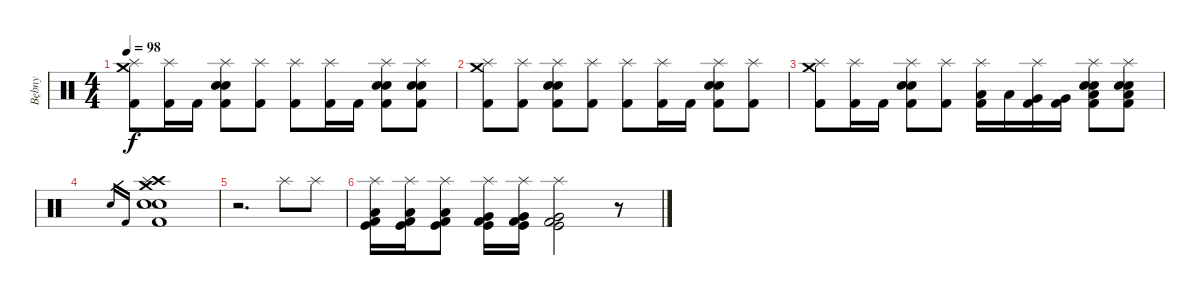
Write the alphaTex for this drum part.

\track ("Bębny" "Bębny") {instrument percussion}
\staff {score}
\articulation defaults
\ts (4 4)
\tempo 98
\clef neutral
\ks c
("Splash (hit)" "Crash medium (hit)" "Kick (hit) 2").8{dy f} ("Splash (hit)" "Kick (hit) 2").16 "Kick (hit) 2".16 ("Splash (hit)" "Snare (hit) 2" "Electric Snare (hit)" "Kick (hit) 2").8 ("Splash (hit)" "Kick (hit) 2").8 ("Splash (hit)" "Kick (hit) 2").8 ("Splash (hit)" "Kick (hit) 2").16 "Kick (hit) 2".16 ("Splash (hit)" "Snare (hit) 2" "Electric Snare (hit)" "Kick (hit) 2").8 ("Splash (hit)" "Snare (hit) 2" "Electric Snare (hit)" "Kick (hit) 2").8 |
("Splash (hit)" "Crash medium (hit)" "Kick (hit) 2").8 ("Splash (hit)" "Kick (hit) 2").8 ("Splash (hit)" "Snare (hit) 2" "Electric Snare (hit)" "Kick (hit) 2").8 ("Splash (hit)" "Kick (hit) 2").8 ("Splash (hit)" "Kick (hit) 2").8 ("Splash (hit)" "Kick (hit) 2").16 "Kick (hit) 2".16 ("Splash (hit)" "Snare (hit) 2" "Electric Snare (hit)" "Kick (hit) 2").8 ("Splash (hit)" "Kick (hit) 2").8 |
("Splash (hit)" "Crash medium (hit)" "Kick (hit) 2").8 ("Splash (hit)" "Kick (hit) 2").16 "Kick (hit) 2".16 ("Splash (hit)" "Snare (hit) 2" "Electric Snare (hit)" "Kick (hit) 2").8 ("Splash (hit)" "Kick (hit) 2").8 ("Splash (hit)" "Low Tom (hit)" "Kick (hit) 2").16 "Low Tom (hit)".16 ("Splash (hit)" "Very Low Tom (hit)" "Kick (hit) 2").16 ("Very Low Tom (hit)" "Kick (hit) 2").16 ("Splash (hit)" "Low Floor Tom (hit)" "Snare (hit) 2" "Electric Snare (hit)" "Kick (hit) 2").8 ("Splash (hit)" "Low Floor Tom (hit)" "Snare (hit) 2" "Electric Snare (hit)" "Kick (hit) 2").8 |
"Electric Snare (hit)".16{gr} "Kick (hit) 2".16{gr} ("Crash high (hit)" "Crash medium (hit)" "Splash (hit)" "Snare (hit) 2" "Electric Snare (hit)" "Kick (hit) 2").1 |
r.2{d} "Splash (hit)".8 "Splash (hit)".8 |
("Splash (hit)" "Kick (hit)" "Low Floor Tom (hit)" "Kick (hit) 2").16 ("Splash (hit)" "Kick (hit)" "Low Floor Tom (hit)" "Kick (hit) 2").16 ("Splash (hit)" "Kick (hit)" "Low Floor Tom (hit)" "Kick (hit) 2").8 ("Splash (hit)" "Kick (hit)" "Very Low Tom (hit)" "Kick (hit) 2").16 ("Splash (hit)" "Kick (hit)" "Very Low Tom (hit)" "Kick (hit) 2").16 ("Splash (hit)" "Kick (hit)" "Very Low Tom (hit)" "Kick (hit) 2").2 r.8
